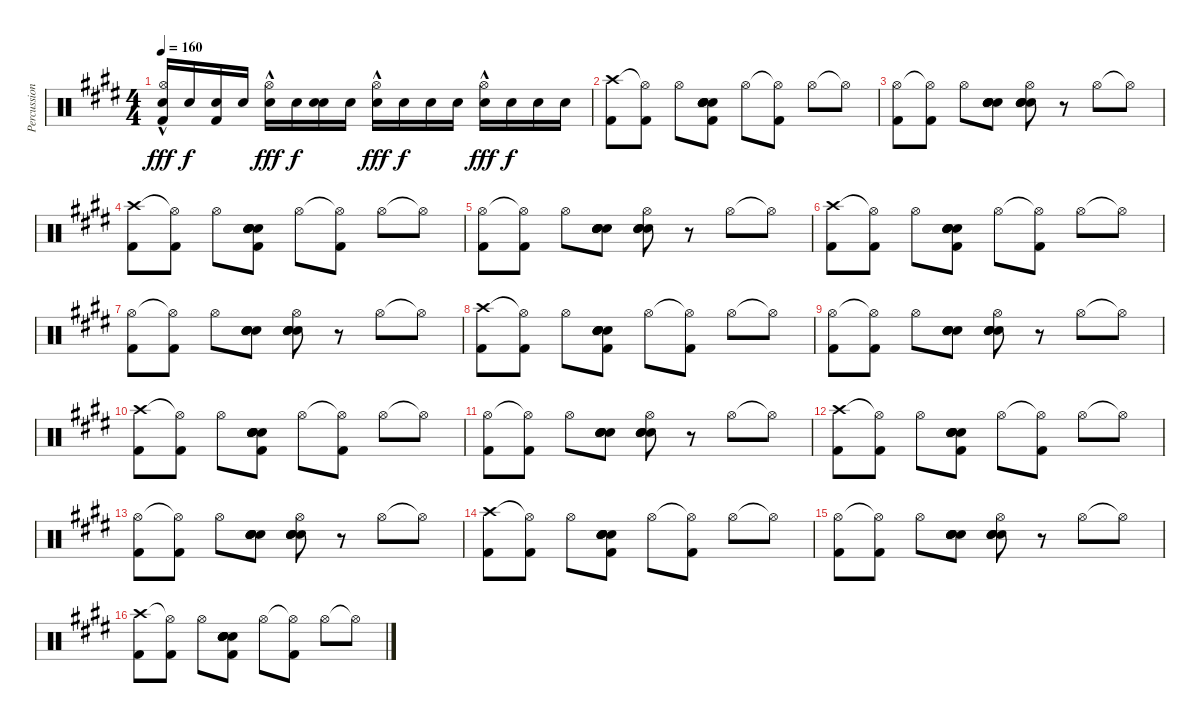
\track ("Percussion" "Percussion") {instrument percussion}
\staff {score}
\articulation defaults
\ts (4 4)
\tempo 160
\clef neutral
\ks c#minor
("Electric Snare (hit)"{hac} "Hi-Hat (open)" "Kick (hit) 2").16{dy fff} "Electric Snare (hit)".16{dy f} ("Electric Snare (hit)" "Kick (hit) 2").16 "Electric Snare (hit)".16 ("Electric Snare (hit)"{hac} "Hi-Hat (open)").16{dy fff} "Electric Snare (hit)".16{dy f} ("Electric Snare (hit)" "Electric Snare (hit)").16 "Electric Snare (hit)".16 ("Electric Snare (hit)"{hac} "Hi-Hat (open)").16{dy fff} "Electric Snare (hit)".16{dy f} "Electric Snare (hit)".16 "Electric Snare (hit)".16 ("Electric Snare (hit)"{hac} "Hi-Hat (open)").16{dy fff} "Electric Snare (hit)".16{dy f} "Electric Snare (hit)".16 "Electric Snare (hit)".16 |
("Crash high (hit)" "Kick (hit) 2").8 ("Hi-Hat (open)"{t} "Kick (hit) 2").8 "Hi-Hat (open)".8 ("Electric Snare (hit)" "Electric Snare (hit)" "Electric Snare (hit)" "Electric Snare (hit)" "Electric Snare (hit)" "Kick (hit) 2").8 "Hi-Hat (open)".8 ("Hi-Hat (open)"{t} "Kick (hit) 2").8 "Hi-Hat (open)".8 "Hi-Hat (open)"{t}.8 |
("Hi-Hat (open)" "Kick (hit) 2").8 ("Hi-Hat (open)"{t} "Kick (hit) 2").8 "Hi-Hat (open)".8 ("Electric Snare (hit)" "Electric Snare (hit)" "Electric Snare (hit)" "Electric Snare (hit)" "Electric Snare (hit)").8 ("Electric Snare (hit)" "Electric Snare (hit)" "Hi-Hat (open)" "Electric Snare (hit)" "Electric Snare (hit)").8 r.8 "Hi-Hat (open)".8 "Hi-Hat (open)"{t}.8 |
("Crash high (hit)" "Kick (hit) 2").8 ("Hi-Hat (open)"{t} "Kick (hit) 2").8 "Hi-Hat (open)".8 ("Electric Snare (hit)" "Electric Snare (hit)" "Electric Snare (hit)" "Electric Snare (hit)" "Electric Snare (hit)" "Kick (hit) 2").8 "Hi-Hat (open)".8 ("Hi-Hat (open)"{t} "Kick (hit) 2").8 "Hi-Hat (open)".8 "Hi-Hat (open)"{t}.8 |
("Hi-Hat (open)" "Kick (hit) 2").8 ("Hi-Hat (open)"{t} "Kick (hit) 2").8 "Hi-Hat (open)".8 ("Electric Snare (hit)" "Electric Snare (hit)" "Electric Snare (hit)" "Electric Snare (hit)" "Electric Snare (hit)").8 ("Electric Snare (hit)" "Electric Snare (hit)" "Hi-Hat (open)" "Electric Snare (hit)" "Electric Snare (hit)").8 r.8 "Hi-Hat (open)".8 "Hi-Hat (open)"{t}.8 |
("Crash high (hit)" "Kick (hit) 2").8 ("Hi-Hat (open)"{t} "Kick (hit) 2").8 "Hi-Hat (open)".8 ("Electric Snare (hit)" "Electric Snare (hit)" "Electric Snare (hit)" "Electric Snare (hit)" "Electric Snare (hit)" "Kick (hit) 2").8 "Hi-Hat (open)".8 ("Hi-Hat (open)"{t} "Kick (hit) 2").8 "Hi-Hat (open)".8 "Hi-Hat (open)"{t}.8 |
("Hi-Hat (open)" "Kick (hit) 2").8 ("Hi-Hat (open)"{t} "Kick (hit) 2").8 "Hi-Hat (open)".8 ("Electric Snare (hit)" "Electric Snare (hit)" "Electric Snare (hit)" "Electric Snare (hit)" "Electric Snare (hit)").8 ("Electric Snare (hit)" "Electric Snare (hit)" "Hi-Hat (open)" "Electric Snare (hit)" "Electric Snare (hit)").8 r.8 "Hi-Hat (open)".8 "Hi-Hat (open)"{t}.8 |
("Crash high (hit)" "Kick (hit) 2").8 ("Hi-Hat (open)"{t} "Kick (hit) 2").8 "Hi-Hat (open)".8 ("Electric Snare (hit)" "Electric Snare (hit)" "Electric Snare (hit)" "Electric Snare (hit)" "Electric Snare (hit)" "Kick (hit) 2").8 "Hi-Hat (open)".8 ("Hi-Hat (open)"{t} "Kick (hit) 2").8 "Hi-Hat (open)".8 "Hi-Hat (open)"{t}.8 |
("Hi-Hat (open)" "Kick (hit) 2").8 ("Hi-Hat (open)"{t} "Kick (hit) 2").8 "Hi-Hat (open)".8 ("Electric Snare (hit)" "Electric Snare (hit)" "Electric Snare (hit)" "Electric Snare (hit)" "Electric Snare (hit)").8 ("Electric Snare (hit)" "Electric Snare (hit)" "Hi-Hat (open)" "Electric Snare (hit)" "Electric Snare (hit)").8 r.8 "Hi-Hat (open)".8 "Hi-Hat (open)"{t}.8 |
("Crash high (hit)" "Kick (hit) 2").8 ("Hi-Hat (open)"{t} "Kick (hit) 2").8 "Hi-Hat (open)".8 ("Electric Snare (hit)" "Electric Snare (hit)" "Electric Snare (hit)" "Electric Snare (hit)" "Electric Snare (hit)" "Kick (hit) 2").8 "Hi-Hat (open)".8 ("Hi-Hat (open)"{t} "Kick (hit) 2").8 "Hi-Hat (open)".8 "Hi-Hat (open)"{t}.8 |
("Hi-Hat (open)" "Kick (hit) 2").8 ("Hi-Hat (open)"{t} "Kick (hit) 2").8 "Hi-Hat (open)".8 ("Electric Snare (hit)" "Electric Snare (hit)" "Electric Snare (hit)" "Electric Snare (hit)" "Electric Snare (hit)").8 ("Electric Snare (hit)" "Electric Snare (hit)" "Hi-Hat (open)" "Electric Snare (hit)" "Electric Snare (hit)").8 r.8 "Hi-Hat (open)".8 "Hi-Hat (open)"{t}.8 |
("Crash high (hit)" "Kick (hit) 2").8 ("Hi-Hat (open)"{t} "Kick (hit) 2").8 "Hi-Hat (open)".8 ("Electric Snare (hit)" "Electric Snare (hit)" "Electric Snare (hit)" "Electric Snare (hit)" "Electric Snare (hit)" "Kick (hit) 2").8 "Hi-Hat (open)".8 ("Hi-Hat (open)"{t} "Kick (hit) 2").8 "Hi-Hat (open)".8 "Hi-Hat (open)"{t}.8 |
("Hi-Hat (open)" "Kick (hit) 2").8 ("Hi-Hat (open)"{t} "Kick (hit) 2").8 "Hi-Hat (open)".8 ("Electric Snare (hit)" "Electric Snare (hit)" "Electric Snare (hit)" "Electric Snare (hit)" "Electric Snare (hit)").8 ("Electric Snare (hit)" "Electric Snare (hit)" "Hi-Hat (open)" "Electric Snare (hit)" "Electric Snare (hit)").8 r.8 "Hi-Hat (open)".8 "Hi-Hat (open)"{t}.8 |
("Crash high (hit)" "Kick (hit) 2").8 ("Hi-Hat (open)"{t} "Kick (hit) 2").8 "Hi-Hat (open)".8 ("Electric Snare (hit)" "Electric Snare (hit)" "Electric Snare (hit)" "Electric Snare (hit)" "Electric Snare (hit)" "Kick (hit) 2").8 "Hi-Hat (open)".8 ("Hi-Hat (open)"{t} "Kick (hit) 2").8 "Hi-Hat (open)".8 "Hi-Hat (open)"{t}.8 |
("Hi-Hat (open)" "Kick (hit) 2").8 ("Hi-Hat (open)"{t} "Kick (hit) 2").8 "Hi-Hat (open)".8 ("Electric Snare (hit)" "Electric Snare (hit)" "Electric Snare (hit)" "Electric Snare (hit)" "Electric Snare (hit)").8 ("Electric Snare (hit)" "Electric Snare (hit)" "Hi-Hat (open)" "Electric Snare (hit)" "Electric Snare (hit)").8 r.8 "Hi-Hat (open)".8 "Hi-Hat (open)"{t}.8 |
("Crash high (hit)" "Kick (hit) 2").8 ("Hi-Hat (open)"{t} "Kick (hit) 2").8 "Hi-Hat (open)".8 ("Electric Snare (hit)" "Electric Snare (hit)" "Electric Snare (hit)" "Electric Snare (hit)" "Electric Snare (hit)" "Kick (hit) 2").8 "Hi-Hat (open)".8 ("Hi-Hat (open)"{t} "Kick (hit) 2").8 "Hi-Hat (open)".8 "Hi-Hat (open)"{t}.8
